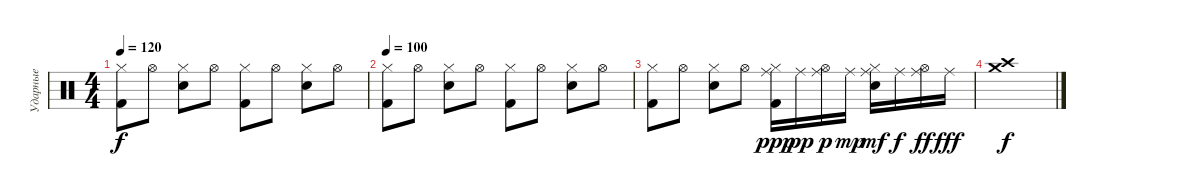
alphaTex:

\track ("Ударные" "Ударные") {instrument percussion}
\staff {score}
\articulation defaults
\ts (4 4)
\tempo 120
\clef neutral
\ks c
("Hi-Hat (closed)" "Kick (hit) 2").8{dy f} "Hi-Hat (open)".8 ("Hi-Hat (closed)" "Snare (hit) 2").8 "Hi-Hat (open)".8 ("Hi-Hat (closed)" "Kick (hit) 2").8 "Hi-Hat (open)".8 ("Hi-Hat (closed)" "Snare (hit) 2").8 "Hi-Hat (open)".8 |
\tempo 100
("Hi-Hat (closed)" "Kick (hit) 2").8 "Hi-Hat (open)".8 ("Hi-Hat (closed)" "Snare (hit) 2").8 "Hi-Hat (open)".8 ("Hi-Hat (closed)" "Kick (hit) 2").8 "Hi-Hat (open)".8 ("Hi-Hat (closed)" "Snare (hit) 2").8 "Hi-Hat (open)".8 |
("Hi-Hat (closed)" "Kick (hit) 2").8 "Hi-Hat (open)".8 ("Hi-Hat (closed)" "Snare (hit) 2").8 "Hi-Hat (open)".8 ("Hi-Hat (closed)" "Kick (hit) 2" "Ride (middle)").16{dy ppp} "Ride (middle)".16{dy pp} ("Hi-Hat (open)" "Ride (middle)").16{dy p} "Ride (middle)".16{dy mp} ("Hi-Hat (closed)" "Snare (hit) 2" "Ride (middle)").16{dy mf} "Ride (middle)".16{dy f} ("Hi-Hat (open)" "Ride (middle)").16{dy ff} "Ride (middle)".16{dy fff} |
("Crash medium (hit)" "Crash high (hit)").1{dy f}
